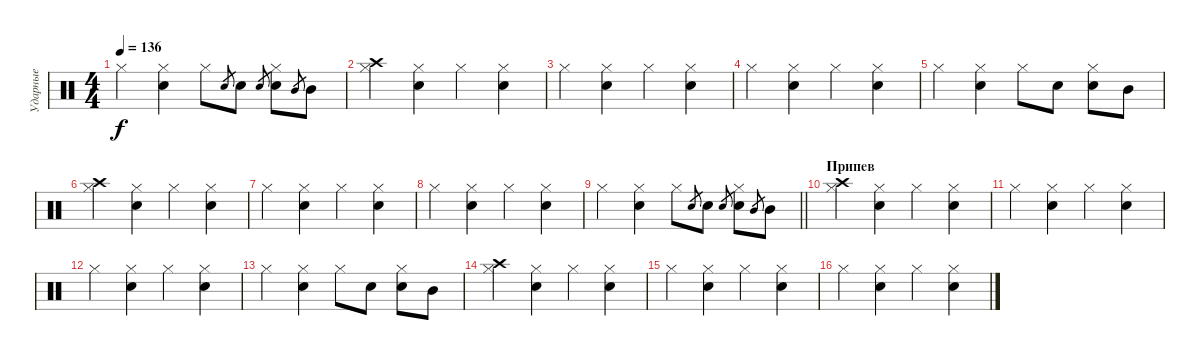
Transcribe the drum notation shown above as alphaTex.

\track ("Ударные" "Ударные") {instrument percussion}
\staff {score}
\articulation defaults
\ts (4 4)
\tempo 136
\clef neutral
\ks c "Hi-Hat (closed)".4{dy f}
("Hi-Hat (closed)" "Snare (hit) 2").4 "Hi-Hat (closed)".8 "Snare (hit) 2".8{gr} "Snare (hit) 2".8 "Snare (hit) 2".8{gr} ("Hi-Hat (closed)" "Snare (hit) 2").8 "Mid Tom (hit)".8{gr} "Mid Tom (hit)".8 |
("Hi-Hat (closed)" "Crash high (hit)").4 ("Hi-Hat (closed)" "Snare (hit) 2").4 "Hi-Hat (closed)".4 ("Hi-Hat (closed)" "Snare (hit) 2").4 |
"Hi-Hat (closed)".4 ("Hi-Hat (closed)" "Snare (hit) 2").4 "Hi-Hat (closed)".4 ("Hi-Hat (closed)" "Snare (hit) 2").4 |
"Hi-Hat (closed)".4 ("Hi-Hat (closed)" "Snare (hit) 2").4 "Hi-Hat (closed)".4 ("Hi-Hat (closed)" "Snare (hit) 2").4 |
"Hi-Hat (closed)".4 ("Hi-Hat (closed)" "Snare (hit) 2").4 "Hi-Hat (closed)".8 "Snare (hit) 2".8 ("Hi-Hat (closed)" "Snare (hit) 2").8 "Mid Tom (hit)".8 |
("Hi-Hat (closed)" "Crash high (hit)").4 ("Hi-Hat (closed)" "Snare (hit) 2").4 "Hi-Hat (closed)".4 ("Hi-Hat (closed)" "Snare (hit) 2").4 |
"Hi-Hat (closed)".4 ("Hi-Hat (closed)" "Snare (hit) 2").4 "Hi-Hat (closed)".4 ("Hi-Hat (closed)" "Snare (hit) 2").4 |
"Hi-Hat (closed)".4 ("Hi-Hat (closed)" "Snare (hit) 2").4 "Hi-Hat (closed)".4 ("Hi-Hat (closed)" "Snare (hit) 2").4 |
\barLineRight lightlight "Hi-Hat (closed)".4
("Hi-Hat (closed)" "Snare (hit) 2").4 "Hi-Hat (closed)".8 "Snare (hit) 2".8{gr} "Snare (hit) 2".8 "Snare (hit) 2".8{gr} ("Hi-Hat (closed)" "Snare (hit) 2").8 "Mid Tom (hit)".8{gr} "Mid Tom (hit)".8 |
\section ("" "Припев")
("Hi-Hat (closed)" "Crash high (hit)").4 ("Hi-Hat (closed)" "Snare (hit) 2").4 "Hi-Hat (closed)".4 ("Hi-Hat (closed)" "Snare (hit) 2").4 |
"Hi-Hat (closed)".4 ("Hi-Hat (closed)" "Snare (hit) 2").4 "Hi-Hat (closed)".4 ("Hi-Hat (closed)" "Snare (hit) 2").4 |
"Hi-Hat (closed)".4 ("Hi-Hat (closed)" "Snare (hit) 2").4 "Hi-Hat (closed)".4 ("Hi-Hat (closed)" "Snare (hit) 2").4 |
"Hi-Hat (closed)".4 ("Hi-Hat (closed)" "Snare (hit) 2").4 "Hi-Hat (closed)".8 "Snare (hit) 2".8 ("Hi-Hat (closed)" "Snare (hit) 2").8 "Mid Tom (hit)".8 |
("Hi-Hat (closed)" "Crash high (hit)").4 ("Hi-Hat (closed)" "Snare (hit) 2").4 "Hi-Hat (closed)".4 ("Hi-Hat (closed)" "Snare (hit) 2").4 |
"Hi-Hat (closed)".4 ("Hi-Hat (closed)" "Snare (hit) 2").4 "Hi-Hat (closed)".4 ("Hi-Hat (closed)" "Snare (hit) 2").4 |
"Hi-Hat (closed)".4 ("Hi-Hat (closed)" "Snare (hit) 2").4 "Hi-Hat (closed)".4 ("Hi-Hat (closed)" "Snare (hit) 2").4
